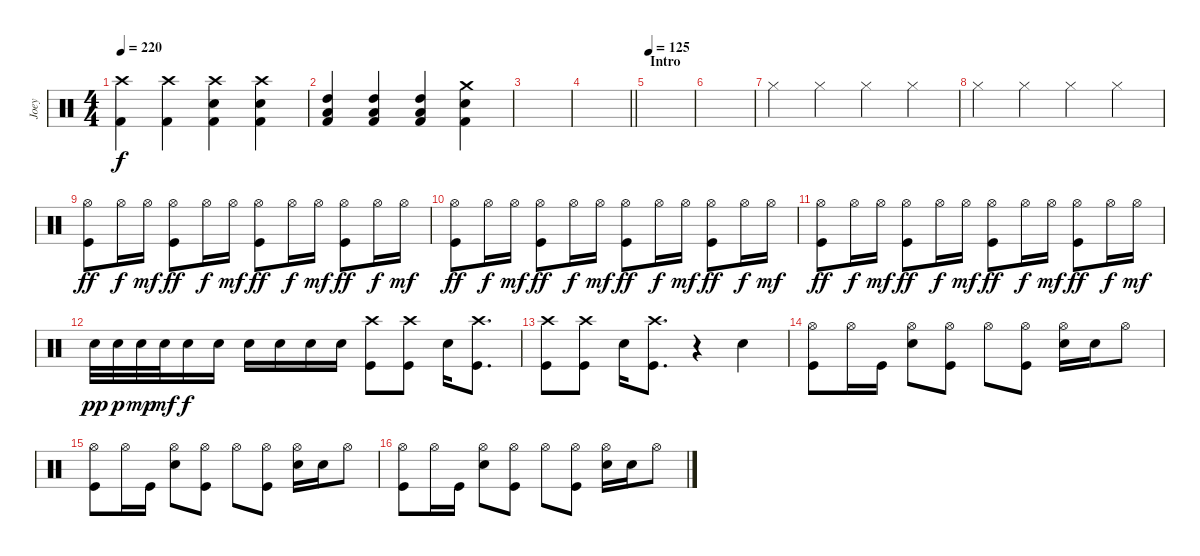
\track ("Joey" "Joey") {instrument percussion}
\staff {score}
\articulation defaults
\ts (4 4)
\tempo 220
\clef neutral
\ks c
("Crash high (hit)" "Kick (hit) 2").4{dy f} ("Crash high (hit)" "Kick (hit) 2").4 ("Crash high (hit)" "Electric Snare (hit)" "Kick (hit) 2").4 ("Crash high (hit)" "Electric Snare (hit)" "Kick (hit) 2").4 |
("High Tom (hit)" "Low Floor Tom (hit)" "Kick (hit) 2").4 ("High Tom (hit)" "Low Floor Tom (hit)" "Kick (hit) 2").4 ("High Tom (hit)" "Low Floor Tom (hit)" "Kick (hit) 2").4 ("Crash medium (hit)" "Electric Snare (hit)" "Kick (hit) 2").4 |
|
\barLineRight lightlight
|
\section ("" "Intro")
\tempo 125
|
|
"Hi-Hat (closed)".4 "Hi-Hat (closed)".4 "Hi-Hat (closed)".4 "Hi-Hat (closed)".4 |
"Hi-Hat (closed)".4 "Hi-Hat (closed)".4 "Hi-Hat (closed)".4 "Hi-Hat (closed)".4 |
("Hi-Hat (open)" "Kick (hit)").8{dy ff} "Hi-Hat (open)".16{dy f} "Hi-Hat (open)".16{dy mf} ("Hi-Hat (open)" "Kick (hit)").8{dy ff} "Hi-Hat (open)".16{dy f} "Hi-Hat (open)".16{dy mf} ("Hi-Hat (open)" "Kick (hit)").8{dy ff} "Hi-Hat (open)".16{dy f} "Hi-Hat (open)".16{dy mf} ("Hi-Hat (open)" "Kick (hit)").8{dy ff} "Hi-Hat (open)".16{dy f} "Hi-Hat (open)".16{dy mf} |
("Hi-Hat (open)" "Kick (hit)").8{dy ff} "Hi-Hat (open)".16{dy f} "Hi-Hat (open)".16{dy mf} ("Hi-Hat (open)" "Kick (hit)").8{dy ff} "Hi-Hat (open)".16{dy f} "Hi-Hat (open)".16{dy mf} ("Hi-Hat (open)" "Kick (hit)").8{dy ff} "Hi-Hat (open)".16{dy f} "Hi-Hat (open)".16{dy mf} ("Hi-Hat (open)" "Kick (hit)").8{dy ff} "Hi-Hat (open)".16{dy f} "Hi-Hat (open)".16{dy mf} |
("Hi-Hat (open)" "Kick (hit)").8{dy ff} "Hi-Hat (open)".16{dy f} "Hi-Hat (open)".16{dy mf} ("Hi-Hat (open)" "Kick (hit)").8{dy ff} "Hi-Hat (open)".16{dy f} "Hi-Hat (open)".16{dy mf} ("Hi-Hat (open)" "Kick (hit)").8{dy ff} "Hi-Hat (open)".16{dy f} "Hi-Hat (open)".16{dy mf} ("Hi-Hat (open)" "Kick (hit)").8{dy ff} "Hi-Hat (open)".16{dy f} "Hi-Hat (open)".16{dy mf} |
"Snare (hit) 2".32{dy pp} "Snare (hit) 2".32{dy p} "Snare (hit) 2".32{dy mp} "Snare (hit) 2".32{dy mf} "Snare (hit) 2".16{dy f} "Snare (hit) 2".16 "Snare (hit) 2".16 "Snare (hit) 2".16 "Snare (hit) 2".16 "Snare (hit) 2".16 ("Crash high (hit)" "Kick (hit)").8 ("Crash high (hit)" "Kick (hit)").8 "Snare (hit) 2".16 ("Crash high (hit)" "Kick (hit)").8{d} |
("Crash high (hit)" "Kick (hit)").8 ("Crash high (hit)" "Kick (hit)").8 "Snare (hit) 2".16 ("Crash high (hit)" "Kick (hit)").8{d} r.4 "Snare (hit) 2".4 |
("Hi-Hat (open)" "Kick (hit)").8 "Hi-Hat (open)".16 "Kick (hit)".16 ("Hi-Hat (open)" "Snare (hit) 2").8 ("Hi-Hat (open)" "Kick (hit)").8 "Hi-Hat (open)".8 ("Hi-Hat (open)" "Kick (hit)").8 ("Hi-Hat (open)" "Snare (hit) 2").16 "Snare (hit) 2".16 "Hi-Hat (open)".8 |
("Hi-Hat (open)" "Kick (hit)").8 "Hi-Hat (open)".16 "Kick (hit)".16 ("Hi-Hat (open)" "Snare (hit) 2").8 ("Hi-Hat (open)" "Kick (hit)").8 "Hi-Hat (open)".8 ("Hi-Hat (open)" "Kick (hit)").8 ("Hi-Hat (open)" "Snare (hit) 2").16 "Snare (hit) 2".16 "Hi-Hat (open)".8 |
("Hi-Hat (open)" "Kick (hit)").8 "Hi-Hat (open)".16 "Kick (hit)".16 ("Hi-Hat (open)" "Snare (hit) 2").8 ("Hi-Hat (open)" "Kick (hit)").8 "Hi-Hat (open)".8 ("Hi-Hat (open)" "Kick (hit)").8 ("Hi-Hat (open)" "Snare (hit) 2").16 "Snare (hit) 2".16 "Hi-Hat (open)".8
